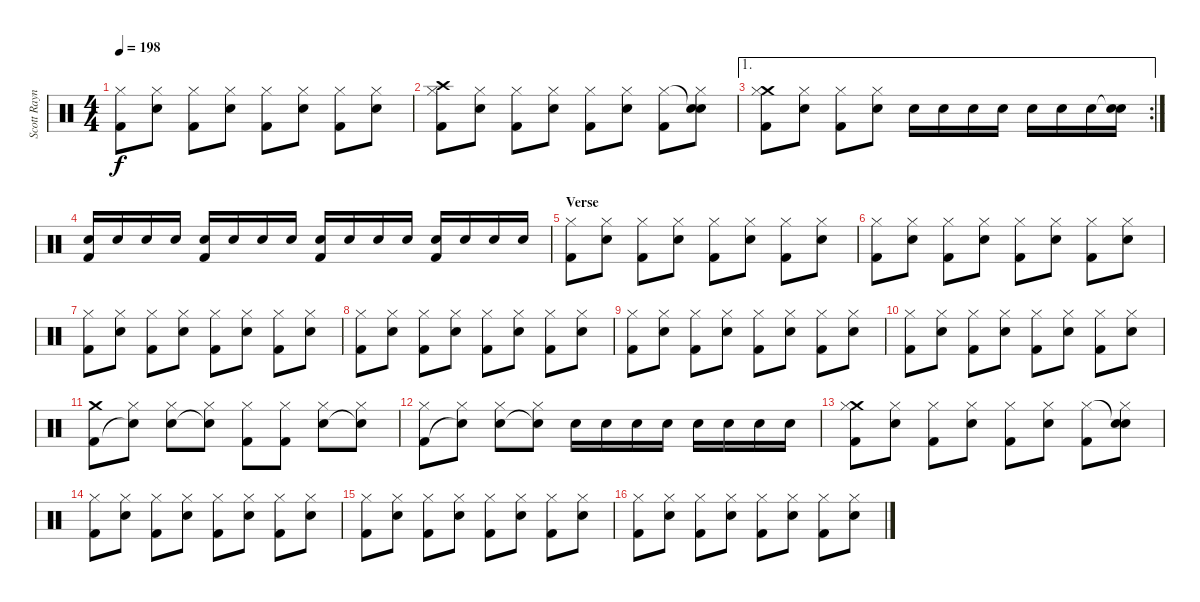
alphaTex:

\track ("Scott Raynor Drums" "Scott Rayn") {instrument percussion}
\staff {score}
\articulation defaults
\ts (4 4)
\tempo 198
\clef neutral
\ks c
("Hi-Hat (closed)" "Kick (hit) 2").8{dy f} ("Hi-Hat (closed)" "Electric Snare (hit)").8 ("Hi-Hat (closed)" "Kick (hit) 2").8 ("Hi-Hat (closed)" "Electric Snare (hit)").8 ("Hi-Hat (closed)" "Kick (hit) 2").8 ("Hi-Hat (closed)" "Electric Snare (hit)").8 ("Hi-Hat (closed)" "Kick (hit) 2").8 ("Hi-Hat (closed)" "Electric Snare (hit)").8 |
("Crash high (hit)" "Hi-Hat (closed)" "Kick (hit) 2").8 ("Hi-Hat (closed)" "Electric Snare (hit)").8 ("Hi-Hat (closed)" "Kick (hit) 2").8 ("Hi-Hat (closed)" "Electric Snare (hit)").8 ("Hi-Hat (closed)" "Kick (hit) 2").8 ("Hi-Hat (closed)" "Electric Snare (hit)").8 ("Hi-Hat (closed)" "Kick (hit) 2").8 ("Snare (hit)"{t} "Hi-Hat (closed)" "Electric Snare (hit)").8 |
\ae 1
\rc 2
("Crash medium (hit)" "Hi-Hat (closed)" "Kick (hit) 2").8 ("Hi-Hat (closed)" "Electric Snare (hit)").8 ("Hi-Hat (closed)" "Kick (hit) 2").8 ("Hi-Hat (closed)" "Electric Snare (hit)").8 "Electric Snare (hit)".16 "Electric Snare (hit)".16 "Electric Snare (hit)".16 "Electric Snare (hit)".16 "Electric Snare (hit)".16 "Electric Snare (hit)".16 "Electric Snare (hit)".16 ("Snare (hit)"{t} "Electric Snare (hit)").16 |
("Electric Snare (hit)" "Kick (hit) 2").16 "Electric Snare (hit)".16 "Electric Snare (hit)".16 "Electric Snare (hit)".16 ("Electric Snare (hit)" "Kick (hit) 2").16 "Electric Snare (hit)".16 "Electric Snare (hit)".16 "Electric Snare (hit)".16 ("Electric Snare (hit)" "Kick (hit) 2").16 "Electric Snare (hit)".16 "Electric Snare (hit)".16 "Electric Snare (hit)".16 ("Electric Snare (hit)" "Kick (hit) 2").16 "Electric Snare (hit)".16 "Electric Snare (hit)".16 "Electric Snare (hit)".16 |
\section ("" "Verse")
("Hi-Hat (closed)" "Kick (hit) 2").8 ("Hi-Hat (closed)" "Electric Snare (hit)").8 ("Hi-Hat (closed)" "Kick (hit) 2").8 ("Hi-Hat (closed)" "Electric Snare (hit)").8 ("Hi-Hat (closed)" "Kick (hit) 2").8 ("Hi-Hat (closed)" "Electric Snare (hit)").8 ("Hi-Hat (closed)" "Kick (hit) 2").8 ("Hi-Hat (closed)" "Electric Snare (hit)").8 |
("Hi-Hat (closed)" "Kick (hit) 2").8 ("Hi-Hat (closed)" "Electric Snare (hit)").8 ("Hi-Hat (closed)" "Kick (hit) 2").8 ("Hi-Hat (closed)" "Electric Snare (hit)").8 ("Hi-Hat (closed)" "Kick (hit) 2").8 ("Hi-Hat (closed)" "Electric Snare (hit)").8 ("Hi-Hat (closed)" "Kick (hit) 2").8 ("Hi-Hat (closed)" "Electric Snare (hit)").8 |
("Hi-Hat (closed)" "Kick (hit) 2").8 ("Hi-Hat (closed)" "Electric Snare (hit)").8 ("Hi-Hat (closed)" "Kick (hit) 2").8 ("Hi-Hat (closed)" "Electric Snare (hit)").8 ("Hi-Hat (closed)" "Kick (hit) 2").8 ("Hi-Hat (closed)" "Electric Snare (hit)").8 ("Hi-Hat (closed)" "Kick (hit) 2").8 ("Hi-Hat (closed)" "Electric Snare (hit)").8 |
("Hi-Hat (closed)" "Kick (hit) 2").8 ("Hi-Hat (closed)" "Electric Snare (hit)").8 ("Hi-Hat (closed)" "Kick (hit) 2").8 ("Hi-Hat (closed)" "Electric Snare (hit)").8 ("Hi-Hat (closed)" "Kick (hit) 2").8 ("Hi-Hat (closed)" "Electric Snare (hit)").8 ("Hi-Hat (closed)" "Kick (hit) 2").8 ("Hi-Hat (closed)" "Electric Snare (hit)").8 |
("Hi-Hat (closed)" "Kick (hit) 2").8 ("Hi-Hat (closed)" "Electric Snare (hit)").8 ("Hi-Hat (closed)" "Kick (hit) 2").8 ("Hi-Hat (closed)" "Electric Snare (hit)").8 ("Hi-Hat (closed)" "Kick (hit) 2").8 ("Hi-Hat (closed)" "Electric Snare (hit)").8 ("Hi-Hat (closed)" "Kick (hit) 2").8 ("Hi-Hat (closed)" "Electric Snare (hit)").8 |
("Hi-Hat (closed)" "Kick (hit) 2").8 ("Hi-Hat (closed)" "Electric Snare (hit)").8 ("Hi-Hat (closed)" "Kick (hit) 2").8 ("Hi-Hat (closed)" "Electric Snare (hit)").8 ("Hi-Hat (closed)" "Kick (hit) 2").8 ("Hi-Hat (closed)" "Electric Snare (hit)").8 ("Hi-Hat (closed)" "Kick (hit) 2").8 ("Hi-Hat (closed)" "Electric Snare (hit)").8 |
("Crash medium (hit)" "Kick (hit) 2").8 ("Hi-Hat (closed)" "Snare (hit)"{t}).8 ("Hi-Hat (closed)" "Electric Snare (hit)").8 ("Hi-Hat (closed)" "Snare (hit)"{t}).8 ("Hi-Hat (closed)" "Kick (hit) 2").8 ("Hi-Hat (closed)" "Kick (hit) 2").8 ("Hi-Hat (closed)" "Electric Snare (hit)").8 ("Hi-Hat (closed)" "Snare (hit)"{t}).8 |
("Hi-Hat (closed)" "Kick (hit) 2").8 ("Hi-Hat (closed)" "Snare (hit)"{t}).8 ("Hi-Hat (closed)" "Electric Snare (hit)").8 ("Hi-Hat (closed)" "Snare (hit)"{t}).8 "Electric Snare (hit)".16 "Electric Snare (hit)".16 "Electric Snare (hit)".16 "Electric Snare (hit)".16 "Electric Snare (hit)".16 "Electric Snare (hit)".16 "Electric Snare (hit)".16 "Electric Snare (hit)".16 |
("Crash medium (hit)" "Hi-Hat (closed)" "Kick (hit) 2").8 ("Hi-Hat (closed)" "Electric Snare (hit)").8 ("Hi-Hat (closed)" "Kick (hit) 2").8 ("Hi-Hat (closed)" "Electric Snare (hit)").8 ("Hi-Hat (closed)" "Kick (hit) 2").8 ("Hi-Hat (closed)" "Electric Snare (hit)").8 ("Hi-Hat (closed)" "Kick (hit) 2").8 ("Snare (hit)"{t} "Hi-Hat (closed)" "Electric Snare (hit)").8 |
("Hi-Hat (closed)" "Kick (hit) 2").8 ("Hi-Hat (closed)" "Electric Snare (hit)").8 ("Hi-Hat (closed)" "Kick (hit) 2").8 ("Hi-Hat (closed)" "Electric Snare (hit)").8 ("Hi-Hat (closed)" "Kick (hit) 2").8 ("Hi-Hat (closed)" "Electric Snare (hit)").8 ("Hi-Hat (closed)" "Kick (hit) 2").8 ("Hi-Hat (closed)" "Electric Snare (hit)").8 |
("Hi-Hat (closed)" "Kick (hit) 2").8 ("Hi-Hat (closed)" "Electric Snare (hit)").8 ("Hi-Hat (closed)" "Kick (hit) 2").8 ("Hi-Hat (closed)" "Electric Snare (hit)").8 ("Hi-Hat (closed)" "Kick (hit) 2").8 ("Hi-Hat (closed)" "Electric Snare (hit)").8 ("Hi-Hat (closed)" "Kick (hit) 2").8 ("Hi-Hat (closed)" "Electric Snare (hit)").8 |
("Hi-Hat (closed)" "Kick (hit) 2").8 ("Hi-Hat (closed)" "Electric Snare (hit)").8 ("Hi-Hat (closed)" "Kick (hit) 2").8 ("Hi-Hat (closed)" "Electric Snare (hit)").8 ("Hi-Hat (closed)" "Kick (hit) 2").8 ("Hi-Hat (closed)" "Electric Snare (hit)").8 ("Hi-Hat (closed)" "Kick (hit) 2").8 ("Hi-Hat (closed)" "Electric Snare (hit)").8
